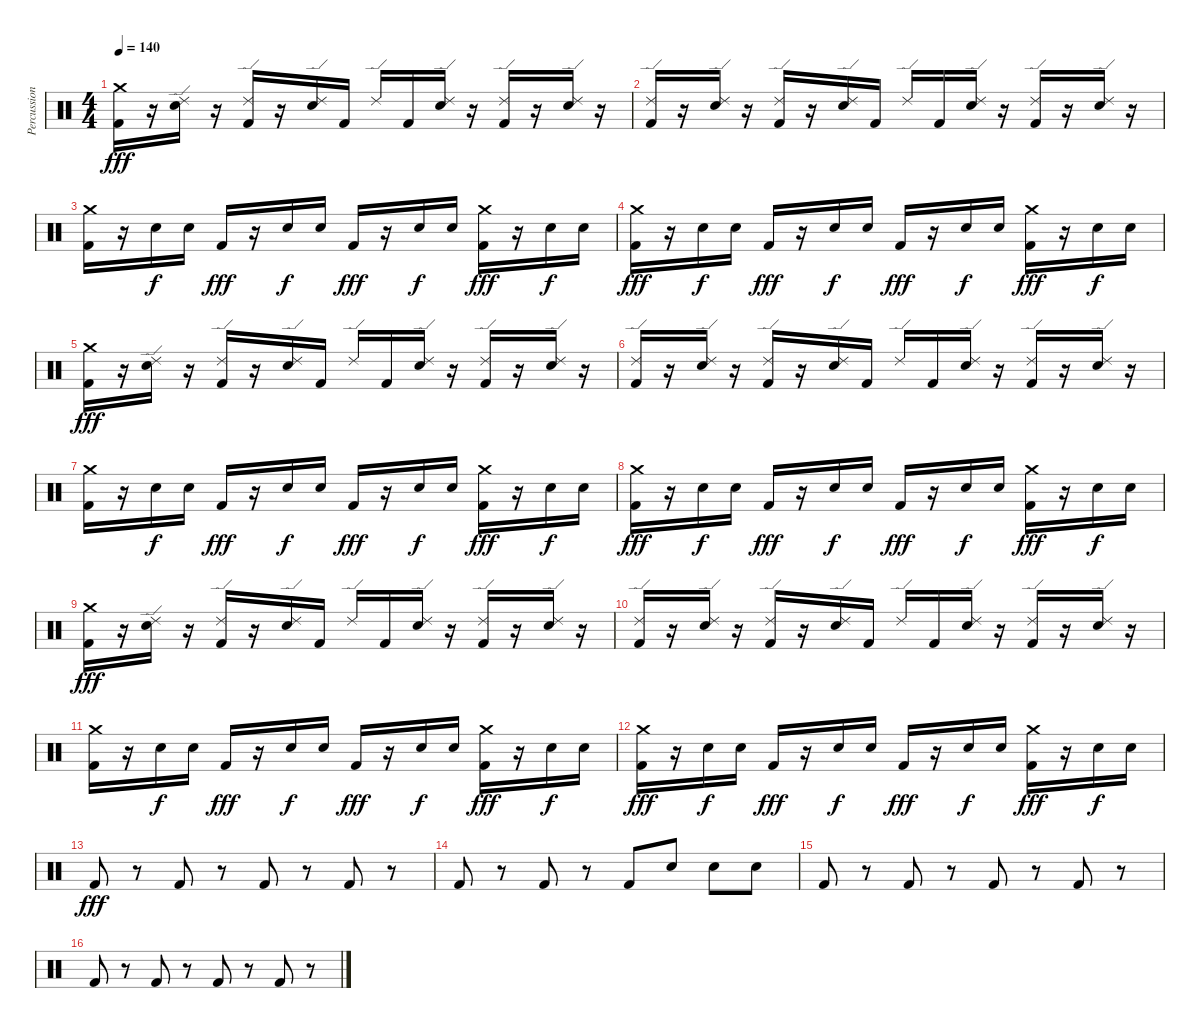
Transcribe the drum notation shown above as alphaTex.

\track ("Percussion" "Percussion") {instrument percussion}
\staff {score}
\articulation defaults
\ts (4 4)
\tempo 140
\clef neutral
\ks c
("Kick (hit) 2" "Crash medium (hit)").16{dy fff} r.16 ("Snare (hit) 2" "Ride (edge) 2").16 r.16 ("Kick (hit) 2" "Ride (edge) 2").16 r.16 ("Snare (hit) 2" "Ride (edge) 2").16 "Kick (hit) 2".16 "Ride (edge) 2".16 "Kick (hit) 2".16 ("Snare (hit) 2" "Ride (edge) 2").16 r.16 ("Kick (hit) 2" "Ride (edge) 2").16 r.16 ("Snare (hit) 2" "Ride (edge) 2").16 r.16 |
("Kick (hit) 2" "Ride (edge) 2").16 r.16 ("Snare (hit) 2" "Ride (edge) 2").16 r.16 ("Kick (hit) 2" "Ride (edge) 2").16 r.16 ("Snare (hit) 2" "Ride (edge) 2").16 "Kick (hit) 2".16 "Ride (edge) 2".16 "Kick (hit) 2".16 ("Snare (hit) 2" "Ride (edge) 2").16 r.16 ("Kick (hit) 2" "Ride (edge) 2").16 r.16 ("Snare (hit) 2" "Ride (edge) 2").16 r.16 |
("Kick (hit) 2" "Crash medium (hit)").16 r.16 "Snare (hit) 2".16{dy f} "Snare (hit) 2".16 "Kick (hit) 2".16{dy fff} r.16 "Snare (hit) 2".16{dy f} "Snare (hit) 2".16 "Kick (hit) 2".16{dy fff} r.16 "Snare (hit) 2".16{dy f} "Snare (hit) 2".16 ("Kick (hit) 2" "Crash medium (hit)").16{dy fff} r.16 "Snare (hit) 2".16{dy f} "Snare (hit) 2".16 |
("Kick (hit) 2" "Crash medium (hit)").16{dy fff} r.16 "Snare (hit) 2".16{dy f} "Snare (hit) 2".16 "Kick (hit) 2".16{dy fff} r.16 "Snare (hit) 2".16{dy f} "Snare (hit) 2".16 "Kick (hit) 2".16{dy fff} r.16 "Snare (hit) 2".16{dy f} "Snare (hit) 2".16 ("Kick (hit) 2" "Crash medium (hit)").16{dy fff} r.16 "Snare (hit) 2".16{dy f} "Snare (hit) 2".16 |
("Kick (hit) 2" "Crash medium (hit)").16{dy fff} r.16 ("Snare (hit) 2" "Ride (edge) 2").16 r.16 ("Kick (hit) 2" "Ride (edge) 2").16 r.16 ("Snare (hit) 2" "Ride (edge) 2").16 "Kick (hit) 2".16 "Ride (edge) 2".16 "Kick (hit) 2".16 ("Snare (hit) 2" "Ride (edge) 2").16 r.16 ("Kick (hit) 2" "Ride (edge) 2").16 r.16 ("Snare (hit) 2" "Ride (edge) 2").16 r.16 |
("Kick (hit) 2" "Ride (edge) 2").16 r.16 ("Snare (hit) 2" "Ride (edge) 2").16 r.16 ("Kick (hit) 2" "Ride (edge) 2").16 r.16 ("Snare (hit) 2" "Ride (edge) 2").16 "Kick (hit) 2".16 "Ride (edge) 2".16 "Kick (hit) 2".16 ("Snare (hit) 2" "Ride (edge) 2").16 r.16 ("Kick (hit) 2" "Ride (edge) 2").16 r.16 ("Snare (hit) 2" "Ride (edge) 2").16 r.16 |
("Kick (hit) 2" "Crash medium (hit)").16 r.16 "Snare (hit) 2".16{dy f} "Snare (hit) 2".16 "Kick (hit) 2".16{dy fff} r.16 "Snare (hit) 2".16{dy f} "Snare (hit) 2".16 "Kick (hit) 2".16{dy fff} r.16 "Snare (hit) 2".16{dy f} "Snare (hit) 2".16 ("Kick (hit) 2" "Crash medium (hit)").16{dy fff} r.16 "Snare (hit) 2".16{dy f} "Snare (hit) 2".16 |
("Kick (hit) 2" "Crash medium (hit)").16{dy fff} r.16 "Snare (hit) 2".16{dy f} "Snare (hit) 2".16 "Kick (hit) 2".16{dy fff} r.16 "Snare (hit) 2".16{dy f} "Snare (hit) 2".16 "Kick (hit) 2".16{dy fff} r.16 "Snare (hit) 2".16{dy f} "Snare (hit) 2".16 ("Kick (hit) 2" "Crash medium (hit)").16{dy fff} r.16 "Snare (hit) 2".16{dy f} "Snare (hit) 2".16 |
("Kick (hit) 2" "Crash medium (hit)").16{dy fff} r.16 ("Snare (hit) 2" "Ride (edge) 2").16 r.16 ("Kick (hit) 2" "Ride (edge) 2").16 r.16 ("Snare (hit) 2" "Ride (edge) 2").16 "Kick (hit) 2".16 "Ride (edge) 2".16 "Kick (hit) 2".16 ("Snare (hit) 2" "Ride (edge) 2").16 r.16 ("Kick (hit) 2" "Ride (edge) 2").16 r.16 ("Snare (hit) 2" "Ride (edge) 2").16 r.16 |
("Kick (hit) 2" "Ride (edge) 2").16 r.16 ("Snare (hit) 2" "Ride (edge) 2").16 r.16 ("Kick (hit) 2" "Ride (edge) 2").16 r.16 ("Snare (hit) 2" "Ride (edge) 2").16 "Kick (hit) 2".16 "Ride (edge) 2".16 "Kick (hit) 2".16 ("Snare (hit) 2" "Ride (edge) 2").16 r.16 ("Kick (hit) 2" "Ride (edge) 2").16 r.16 ("Snare (hit) 2" "Ride (edge) 2").16 r.16 |
("Kick (hit) 2" "Crash medium (hit)").16 r.16 "Snare (hit) 2".16{dy f} "Snare (hit) 2".16 "Kick (hit) 2".16{dy fff} r.16 "Snare (hit) 2".16{dy f} "Snare (hit) 2".16 "Kick (hit) 2".16{dy fff} r.16 "Snare (hit) 2".16{dy f} "Snare (hit) 2".16 ("Kick (hit) 2" "Crash medium (hit)").16{dy fff} r.16 "Snare (hit) 2".16{dy f} "Snare (hit) 2".16 |
("Kick (hit) 2" "Crash medium (hit)").16{dy fff} r.16 "Snare (hit) 2".16{dy f} "Snare (hit) 2".16 "Kick (hit) 2".16{dy fff} r.16 "Snare (hit) 2".16{dy f} "Snare (hit) 2".16 "Kick (hit) 2".16{dy fff} r.16 "Snare (hit) 2".16{dy f} "Snare (hit) 2".16 ("Kick (hit) 2" "Crash medium (hit)").16{dy fff} r.16 "Snare (hit) 2".16{dy f} "Snare (hit) 2".16 |
"Kick (hit) 2".8{dy fff} r.8 "Kick (hit) 2".8 r.8 "Kick (hit) 2".8 r.8 "Kick (hit) 2".8 r.8 |
"Kick (hit) 2".8 r.8 "Kick (hit) 2".8 r.8 "Kick (hit) 2".8 "Snare (hit) 2".8 "Snare (hit) 2".8 "Snare (hit) 2".8 |
"Kick (hit) 2".8 r.8 "Kick (hit) 2".8 r.8 "Kick (hit) 2".8 r.8 "Kick (hit) 2".8 r.8 |
"Kick (hit) 2".8 r.8 "Kick (hit) 2".8 r.8 "Kick (hit) 2".8 r.8 "Kick (hit) 2".8 r.8
